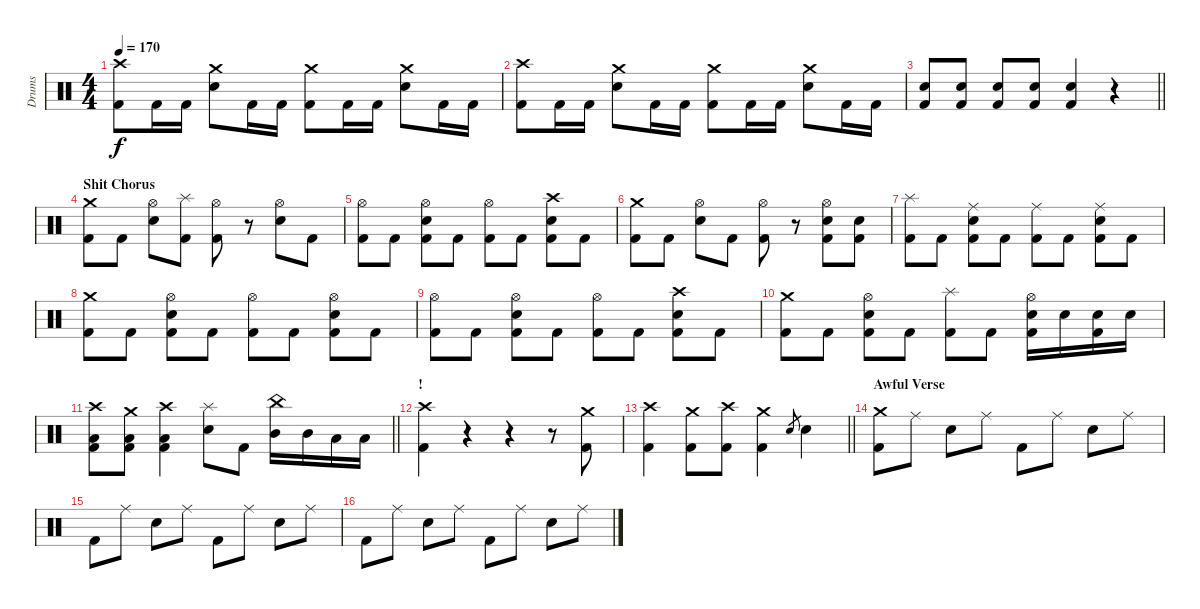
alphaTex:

\track ("Drums" "Drums") {instrument percussion}
\staff {score}
\articulation defaults
\ts (4 4)
\tempo 170
\clef neutral
\ks c
("Crash high (hit)" "Kick (hit) 2").8{dy f} "Kick (hit) 2".16 "Kick (hit) 2".16 ("Crash medium (hit)" "Snare (hit) 2").8 "Kick (hit) 2".16 "Kick (hit) 2".16 ("Crash medium (hit)" "Kick (hit) 2").8 "Kick (hit) 2".16 "Kick (hit) 2".16 ("Crash medium (hit)" "Snare (hit) 2").8 "Kick (hit) 2".16 "Kick (hit) 2".16 |
("Crash high (hit)" "Kick (hit) 2").8 "Kick (hit) 2".16 "Kick (hit) 2".16 ("Crash medium (hit)" "Snare (hit) 2").8 "Kick (hit) 2".16 "Kick (hit) 2".16 ("Crash medium (hit)" "Kick (hit) 2").8 "Kick (hit) 2".16 "Kick (hit) 2".16 ("Crash medium (hit)" "Snare (hit) 2").8 "Kick (hit) 2".16 "Kick (hit) 2".16 |
\barLineRight lightlight
("Snare (hit) 2" "Kick (hit) 2").8 ("Snare (hit) 2" "Kick (hit) 2").8 ("Snare (hit) 2" "Kick (hit) 2").8 ("Snare (hit) 2" "Kick (hit) 2").8 ("Snare (hit) 2" "Kick (hit) 2").4 r.4 |
\section ("" "Shit Chorus")
("Crash medium (hit)" "Kick (hit) 2").8 "Kick (hit) 2".8 ("Hi-Hat (open)" "Snare (hit) 2").8 ("Splash (hit)" "Kick (hit) 2").8 ("Hi-Hat (open)" "Kick (hit) 2").8 r.8 ("Hi-Hat (open)" "Snare (hit) 2").8 "Kick (hit) 2".8 |
("Hi-Hat (open)" "Kick (hit) 2").8 "Kick (hit) 2".8 ("Hi-Hat (open)" "Snare (hit) 2" "Kick (hit) 2").8 "Kick (hit) 2".8 ("Hi-Hat (open)" "Kick (hit) 2").8 "Kick (hit) 2".8 ("Crash high (hit)" "Snare (hit) 2" "Kick (hit) 2").8 "Kick (hit) 2".8 |
("Crash medium (hit)" "Kick (hit) 2").8 "Kick (hit) 2".8 ("Hi-Hat (open)" "Snare (hit) 2").8 "Kick (hit) 2".8 ("Hi-Hat (open)" "Kick (hit) 2").8 r.8 ("Hi-Hat (open)" "Snare (hit) 2" "Kick (hit) 2").8 ("Snare (hit) 2" "Kick (hit) 2").8 |
("Splash (hit)" "Kick (hit) 2").8 "Kick (hit) 2".8 ("Ride (middle)" "Snare (hit) 2" "Kick (hit) 2").8 "Kick (hit) 2".8 ("Ride (middle)" "Kick (hit) 2").8 "Kick (hit) 2".8 ("Ride (middle)" "Snare (hit) 2" "Kick (hit) 2").8 "Kick (hit) 2".8 |
("Crash medium (hit)" "Kick (hit) 2").8 "Kick (hit) 2".8 ("Hi-Hat (open)" "Snare (hit) 2" "Kick (hit) 2").8 "Kick (hit) 2".8 ("Hi-Hat (open)" "Kick (hit) 2").8 "Kick (hit) 2".8 ("Hi-Hat (open)" "Snare (hit) 2" "Kick (hit) 2").8 "Kick (hit) 2".8 |
("Hi-Hat (open)" "Kick (hit) 2").8 "Kick (hit) 2".8 ("Hi-Hat (open)" "Snare (hit) 2" "Kick (hit) 2").8 "Kick (hit) 2".8 ("Hi-Hat (open)" "Kick (hit) 2").8 "Kick (hit) 2".8 ("Crash high (hit)" "Snare (hit) 2" "Kick (hit) 2").8 "Kick (hit) 2".8 |
("Crash medium (hit)" "Kick (hit) 2").8 "Kick (hit) 2".8 ("Hi-Hat (open)" "Snare (hit) 2" "Kick (hit) 2").8 "Kick (hit) 2".8 ("Splash (hit)" "Kick (hit) 2").8 "Kick (hit) 2".8 ("Hi-Hat (open)" "Snare (hit) 2" "Kick (hit) 2").16 "Snare (hit) 2".16 ("Snare (hit) 2" "Kick (hit) 2").16 "Snare (hit) 2".16 |
\barLineRight lightlight
("Crash high (hit)" "Low Floor Tom (hit)" "Kick (hit) 2").8 ("Crash medium (hit)" "Low Floor Tom (hit)" "Kick (hit) 2").8 ("Crash high (hit)" "Low Floor Tom (hit)" "Kick (hit) 2").4 ("Splash (hit)" "Snare (hit) 2").8 "Kick (hit) 2".8 ("China (hit)" "Mid Tom (hit)").16 "Mid Tom (hit)".16 "Low Tom (hit)".16 "Low Tom (hit)".16 |
\section ("" "!")
("Crash high (hit)" "Kick (hit) 2").4 r.4 r.4 r.8 ("Crash medium (hit)" "Kick (hit) 2").8 |
\barLineRight lightlight
("Crash high (hit)" "Kick (hit) 2").4 ("Crash medium (hit)" "Kick (hit) 2").8 ("Crash high (hit)" "Kick (hit) 2").8 ("Crash medium (hit)" "Kick (hit) 2").4 "Snare (hit) 2".8{gr} "Snare (hit) 2".4 |
\section ("" "Awful Verse")
("Crash medium (hit)" "Kick (hit) 2").8 "Ride (middle)".8 "Snare (hit) 2".8 "Ride (middle)".8 "Kick (hit) 2".8 "Ride (middle)".8 "Snare (hit) 2".8 "Ride (middle)".8 |
"Kick (hit) 2".8 "Ride (middle)".8 "Snare (hit) 2".8 "Ride (middle)".8 "Kick (hit) 2".8 "Ride (middle)".8 "Snare (hit) 2".8 "Ride (middle)".8 |
"Kick (hit) 2".8 "Ride (middle)".8 "Snare (hit) 2".8 "Ride (middle)".8 "Kick (hit) 2".8 "Ride (middle)".8 "Snare (hit) 2".8 "Ride (middle)".8
